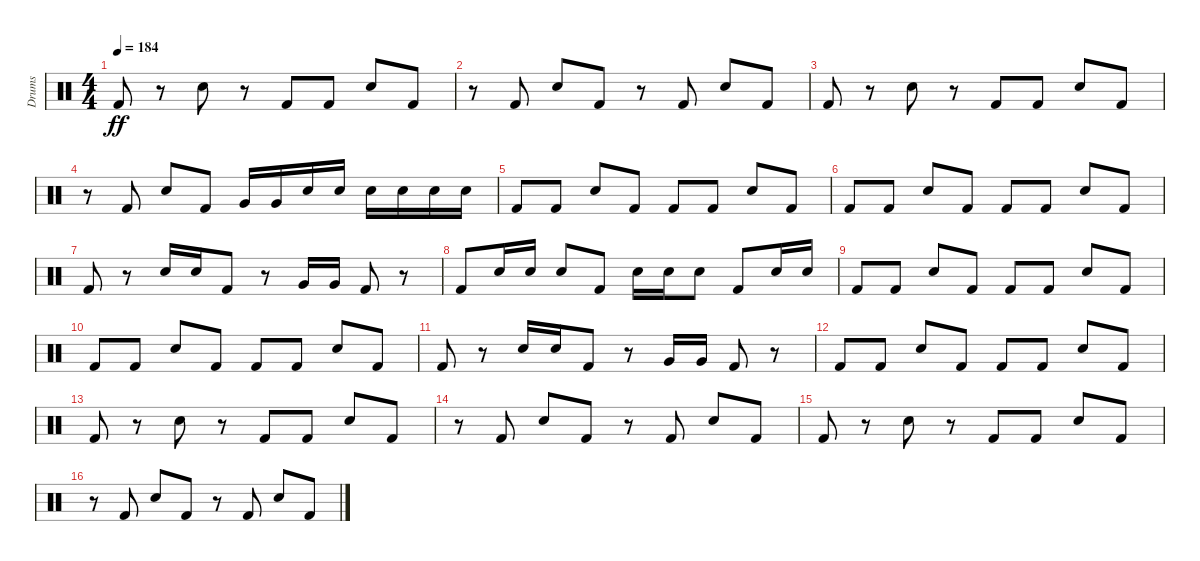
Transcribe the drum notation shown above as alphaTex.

\track ("Drums" "Drums") {instrument percussion}
\staff {score}
\articulation defaults
\ts (4 4)
\tempo 184
\clef neutral
\ks c "Kick (hit) 2".8{dy ff}
r.8 "Electric Snare (hit)".8 r.8 "Kick (hit) 2".8 "Kick (hit) 2".8 "Electric Snare (hit)".8 "Kick (hit) 2".8 |
r.8 "Kick (hit) 2".8 "Electric Snare (hit)".8 "Kick (hit) 2".8 r.8 "Kick (hit) 2".8 "Electric Snare (hit)".8 "Kick (hit) 2".8 |
"Kick (hit) 2".8 r.8 "Electric Snare (hit)".8 r.8 "Kick (hit) 2".8 "Kick (hit) 2".8 "Electric Snare (hit)".8 "Kick (hit) 2".8 |
r.8 "Kick (hit) 2".8 "Electric Snare (hit)".8 "Kick (hit) 2".8 "Very Low Tom (hit)".16 "Very Low Tom (hit)".16 "Electric Snare (hit)".16 "Electric Snare (hit)".16 "Electric Snare (hit)".16 "Electric Snare (hit)".16 "Electric Snare (hit)".16 "Electric Snare (hit)".16 |
"Kick (hit) 2".8 "Kick (hit) 2".8 "Electric Snare (hit)".8 "Kick (hit) 2".8 "Kick (hit) 2".8 "Kick (hit) 2".8 "Electric Snare (hit)".8 "Kick (hit) 2".8 |
"Kick (hit) 2".8 "Kick (hit) 2".8 "Electric Snare (hit)".8 "Kick (hit) 2".8 "Kick (hit) 2".8 "Kick (hit) 2".8 "Electric Snare (hit)".8 "Kick (hit) 2".8 |
"Kick (hit) 2".8 r.8 "Electric Snare (hit)".16 "Electric Snare (hit)".16 "Kick (hit) 2".8 r.8 "Very Low Tom (hit)".16 "Very Low Tom (hit)".16 "Kick (hit) 2".8 r.8 |
"Kick (hit) 2".8 "Electric Snare (hit)".16 "Electric Snare (hit)".16 "Electric Snare (hit)".8 "Kick (hit) 2".8 "Electric Snare (hit)".16 "Electric Snare (hit)".16 "Electric Snare (hit)".8 "Kick (hit) 2".8 "Electric Snare (hit)".16 "Electric Snare (hit)".16 |
"Kick (hit) 2".8 "Kick (hit) 2".8 "Electric Snare (hit)".8 "Kick (hit) 2".8 "Kick (hit) 2".8 "Kick (hit) 2".8 "Electric Snare (hit)".8 "Kick (hit) 2".8 |
"Kick (hit) 2".8 "Kick (hit) 2".8 "Electric Snare (hit)".8 "Kick (hit) 2".8 "Kick (hit) 2".8 "Kick (hit) 2".8 "Electric Snare (hit)".8 "Kick (hit) 2".8 |
"Kick (hit) 2".8 r.8 "Electric Snare (hit)".16 "Electric Snare (hit)".16 "Kick (hit) 2".8 r.8 "Very Low Tom (hit)".16 "Very Low Tom (hit)".16 "Kick (hit) 2".8 r.8 |
"Kick (hit) 2".8 "Kick (hit) 2".8 "Electric Snare (hit)".8 "Kick (hit) 2".8 "Kick (hit) 2".8 "Kick (hit) 2".8 "Electric Snare (hit)".8 "Kick (hit) 2".8 |
"Kick (hit) 2".8 r.8 "Electric Snare (hit)".8 r.8 "Kick (hit) 2".8 "Kick (hit) 2".8 "Electric Snare (hit)".8 "Kick (hit) 2".8 |
r.8 "Kick (hit) 2".8 "Electric Snare (hit)".8 "Kick (hit) 2".8 r.8 "Kick (hit) 2".8 "Electric Snare (hit)".8 "Kick (hit) 2".8 |
"Kick (hit) 2".8 r.8 "Electric Snare (hit)".8 r.8 "Kick (hit) 2".8 "Kick (hit) 2".8 "Electric Snare (hit)".8 "Kick (hit) 2".8 |
r.8 "Kick (hit) 2".8 "Electric Snare (hit)".8 "Kick (hit) 2".8 r.8 "Kick (hit) 2".8 "Electric Snare (hit)".8 "Kick (hit) 2".8
